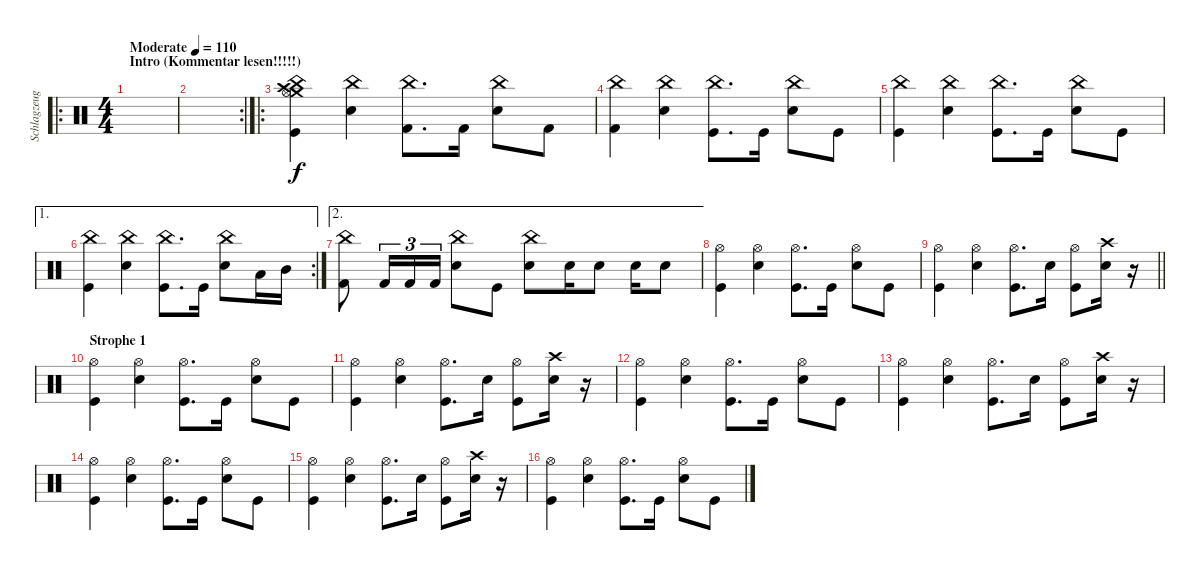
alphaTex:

\track ("Schlagzeug" "Schlagzeug") {instrument percussion}
\staff {score}
\articulation defaults
\ro
\ts (4 4)
\section ("" "Intro (Kommentar lesen!!!!!)")
\tempo (110 "Moderate")
\clef neutral
\ks c
|
\rc 2
|
\ro
("Kick (hit)" "Crash high (hit)" "China (hit)" "Crash medium (hit)" "Hi-Hat (open)").4 ("China (hit)" "Snare (hit) 2").4 ("China (hit)" "Kick (hit) 2").8{d} "Kick (hit) 2".16 ("China (hit)" "Snare (hit) 2").8 "Kick (hit) 2".8 |
("China (hit)" "Kick (hit) 2").4 ("China (hit)" "Snare (hit) 2").4 ("China (hit)" "Kick (hit)").8{d} "Kick (hit)".16 ("China (hit)" "Snare (hit) 2").8 "Kick (hit)".8 |
("China (hit)" "Kick (hit)").4 ("China (hit)" "Snare (hit) 2").4 ("China (hit)" "Kick (hit)").8{d} "Kick (hit)".16 ("China (hit)" "Snare (hit) 2").8 "Kick (hit)".8 |
\ae 1
\rc 2
("China (hit)" "Kick (hit)").4 ("China (hit)" "Snare (hit) 2").4 ("China (hit)" "Kick (hit)").8{d} "Kick (hit)".16 ("Snare (hit) 2" "China (hit)").8 "Low Floor Tom (hit)".16 "Mid Tom (hit)".16 |
\ae 2
("China (hit)" "Kick (hit) 2").8 "Kick (hit) 2".16{tu (3 2)} "Kick (hit) 2".16{tu (3 2)} "Kick (hit) 2".16{tu (3 2)} ("China (hit)" "Snare (hit) 2").8 "Kick (hit)".8 ("China (hit)" "Snare (hit) 2").8 "Snare (hit) 2".16 "Snare (hit) 2".8 "Snare (hit) 2".16 "Snare (hit) 2".8 |
("Hi-Hat (open)" "Kick (hit)").4 ("Hi-Hat (open)" "Snare (hit) 2").4 ("Hi-Hat (open)" "Kick (hit)").8{d} "Kick (hit)".16 ("Hi-Hat (open)" "Snare (hit) 2").8 "Kick (hit)".8 |
\barLineRight lightlight
("Hi-Hat (open)" "Kick (hit)").4 ("Hi-Hat (open)" "Snare (hit) 2").4 ("Hi-Hat (open)" "Kick (hit)").8{d} "Snare (hit) 2".16 ("Hi-Hat (open)" "Kick (hit)").8 ("Snare (hit) 2" "Crash high (hit)").16 r.16 |
\section ("" "Strophe 1")
("Hi-Hat (open)" "Kick (hit)").4 ("Hi-Hat (open)" "Snare (hit) 2").4 ("Hi-Hat (open)" "Kick (hit)").8{d} "Kick (hit)".16 ("Hi-Hat (open)" "Snare (hit) 2").8 "Kick (hit)".8 |
("Hi-Hat (open)" "Kick (hit)").4 ("Hi-Hat (open)" "Snare (hit) 2").4 ("Hi-Hat (open)" "Kick (hit)").8{d} "Snare (hit) 2".16 ("Hi-Hat (open)" "Kick (hit)").8 ("Snare (hit) 2" "Crash high (hit)").16 r.16 |
("Hi-Hat (open)" "Kick (hit)").4 ("Hi-Hat (open)" "Snare (hit) 2").4 ("Hi-Hat (open)" "Kick (hit)").8{d} "Kick (hit)".16 ("Hi-Hat (open)" "Snare (hit) 2").8 "Kick (hit)".8 |
("Hi-Hat (open)" "Kick (hit)").4 ("Hi-Hat (open)" "Snare (hit) 2").4 ("Hi-Hat (open)" "Kick (hit)").8{d} "Snare (hit) 2".16 ("Hi-Hat (open)" "Kick (hit)").8 ("Snare (hit) 2" "Crash high (hit)").16 r.16 |
("Hi-Hat (open)" "Kick (hit)").4 ("Hi-Hat (open)" "Snare (hit) 2").4 ("Hi-Hat (open)" "Kick (hit)").8{d} "Kick (hit)".16 ("Hi-Hat (open)" "Snare (hit) 2").8 "Kick (hit)".8 |
("Hi-Hat (open)" "Kick (hit)").4 ("Hi-Hat (open)" "Snare (hit) 2").4 ("Hi-Hat (open)" "Kick (hit)").8{d} "Snare (hit) 2".16 ("Hi-Hat (open)" "Kick (hit)").8 ("Snare (hit) 2" "Crash high (hit)").16 r.16 |
("Hi-Hat (open)" "Kick (hit)").4 ("Hi-Hat (open)" "Snare (hit) 2").4 ("Hi-Hat (open)" "Kick (hit)").8{d} "Kick (hit)".16 ("Hi-Hat (open)" "Snare (hit) 2").8 "Kick (hit)".8
